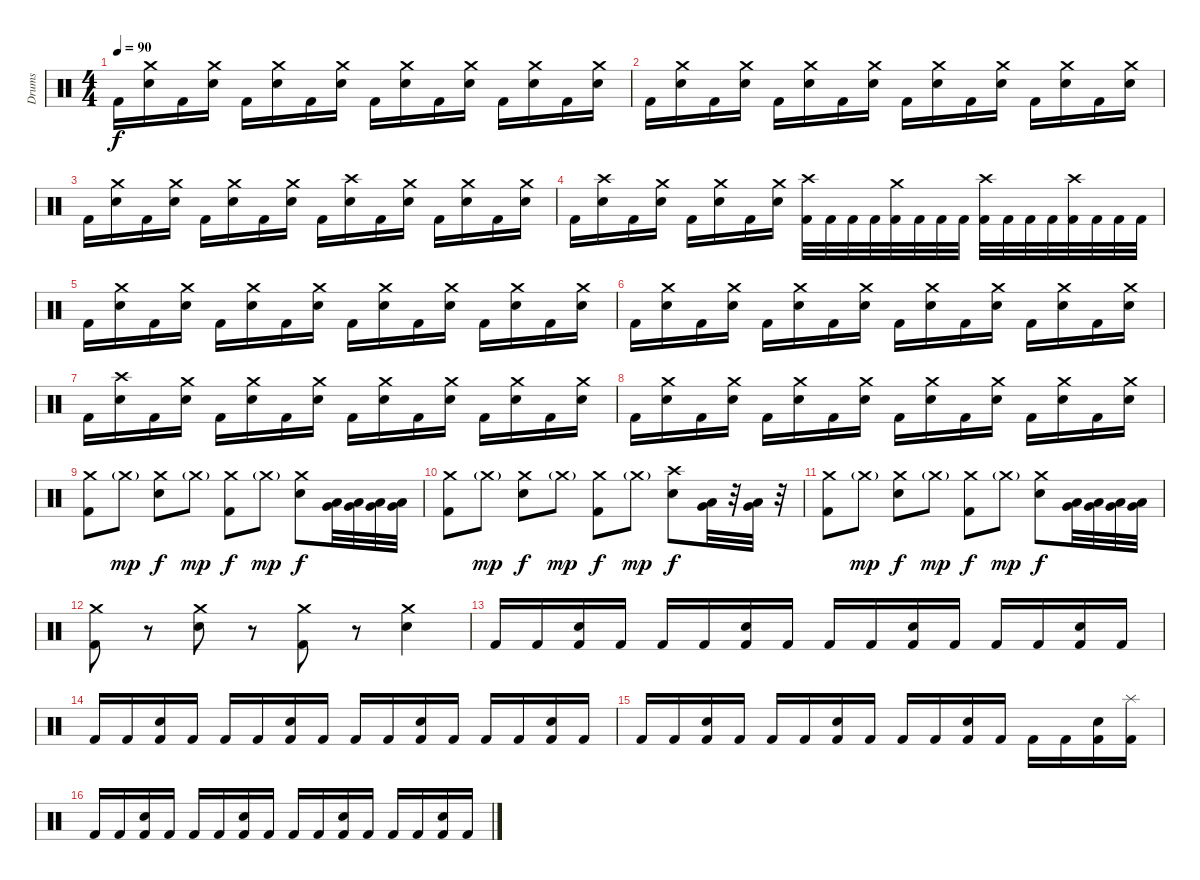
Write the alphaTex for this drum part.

\track ("Drums" "Drums") {instrument percussion}
\staff {score}
\articulation defaults
\ts (4 4)
\tempo 90
\clef neutral
\ks c "Kick (hit) 2".16{dy f}
("Crash medium (hit)" "Snare (hit) 2").16 "Kick (hit) 2".16 ("Crash medium (hit)" "Snare (hit) 2").16 "Kick (hit) 2".16 ("Crash medium (hit)" "Snare (hit) 2").16 "Kick (hit) 2".16 ("Crash medium (hit)" "Snare (hit) 2").16 "Kick (hit) 2".16 ("Crash medium (hit)" "Snare (hit) 2").16 "Kick (hit) 2".16 ("Crash medium (hit)" "Snare (hit) 2").16 "Kick (hit) 2".16 ("Crash medium (hit)" "Snare (hit) 2").16 "Kick (hit) 2".16 ("Crash medium (hit)" "Snare (hit) 2").16 |
"Kick (hit) 2".16 ("Crash medium (hit)" "Snare (hit) 2").16 "Kick (hit) 2".16 ("Crash medium (hit)" "Snare (hit) 2").16 "Kick (hit) 2".16 ("Crash medium (hit)" "Snare (hit) 2").16 "Kick (hit) 2".16 ("Crash medium (hit)" "Snare (hit) 2").16 "Kick (hit) 2".16 ("Crash medium (hit)" "Snare (hit) 2").16 "Kick (hit) 2".16 ("Crash medium (hit)" "Snare (hit) 2").16 "Kick (hit) 2".16 ("Crash medium (hit)" "Snare (hit) 2").16 "Kick (hit) 2".16 ("Crash medium (hit)" "Snare (hit) 2").16 |
"Kick (hit) 2".16 ("Crash medium (hit)" "Snare (hit) 2").16 "Kick (hit) 2".16 ("Crash medium (hit)" "Snare (hit) 2").16 "Kick (hit) 2".16 ("Crash medium (hit)" "Snare (hit) 2").16 "Kick (hit) 2".16 ("Crash medium (hit)" "Snare (hit) 2").16 "Kick (hit) 2".16 ("Crash high (hit)" "Snare (hit) 2").16 "Kick (hit) 2".16 ("Crash medium (hit)" "Snare (hit) 2").16 "Kick (hit) 2".16 ("Crash medium (hit)" "Snare (hit) 2").16 "Kick (hit) 2".16 ("Crash medium (hit)" "Snare (hit) 2").16 |
"Kick (hit) 2".16 ("Crash high (hit)" "Snare (hit) 2").16 "Kick (hit) 2".16 ("Crash medium (hit)" "Snare (hit) 2").16 "Kick (hit) 2".16 ("Crash medium (hit)" "Snare (hit) 2").16 "Kick (hit) 2".16 ("Crash medium (hit)" "Snare (hit) 2").16 ("Crash high (hit)" "Kick (hit) 2").32 "Kick (hit) 2".32 "Kick (hit) 2".32 "Kick (hit) 2".32 ("Crash medium (hit)" "Kick (hit) 2").32 "Kick (hit) 2".32 "Kick (hit) 2".32 "Kick (hit) 2".32 ("Crash high (hit)" "Kick (hit) 2").32 "Kick (hit) 2".32 "Kick (hit) 2".32 "Kick (hit) 2".32 ("Crash high (hit)" "Kick (hit) 2").32 "Kick (hit) 2".32 "Kick (hit) 2".32 "Kick (hit) 2".32 |
"Kick (hit) 2".16 ("Crash medium (hit)" "Snare (hit) 2").16 "Kick (hit) 2".16 ("Crash medium (hit)" "Snare (hit) 2").16 "Kick (hit) 2".16 ("Crash medium (hit)" "Snare (hit) 2").16 "Kick (hit) 2".16 ("Crash medium (hit)" "Snare (hit) 2").16 "Kick (hit) 2".16 ("Crash medium (hit)" "Snare (hit) 2").16 "Kick (hit) 2".16 ("Crash medium (hit)" "Snare (hit) 2").16 "Kick (hit) 2".16 ("Crash medium (hit)" "Snare (hit) 2").16 "Kick (hit) 2".16 ("Crash medium (hit)" "Snare (hit) 2").16 |
"Kick (hit) 2".16 ("Crash medium (hit)" "Snare (hit) 2").16 "Kick (hit) 2".16 ("Crash medium (hit)" "Snare (hit) 2").16 "Kick (hit) 2".16 ("Crash medium (hit)" "Snare (hit) 2").16 "Kick (hit) 2".16 ("Crash medium (hit)" "Snare (hit) 2").16 "Kick (hit) 2".16 ("Crash medium (hit)" "Snare (hit) 2").16 "Kick (hit) 2".16 ("Crash medium (hit)" "Snare (hit) 2").16 "Kick (hit) 2".16 ("Crash medium (hit)" "Snare (hit) 2").16 "Kick (hit) 2".16 ("Crash medium (hit)" "Snare (hit) 2").16 |
"Kick (hit) 2".16 ("Crash high (hit)" "Snare (hit) 2").16 "Kick (hit) 2".16 ("Crash medium (hit)" "Snare (hit) 2").16 "Kick (hit) 2".16 ("Crash medium (hit)" "Snare (hit) 2").16 "Kick (hit) 2".16 ("Crash medium (hit)" "Snare (hit) 2").16 "Kick (hit) 2".16 ("Crash medium (hit)" "Snare (hit) 2").16 "Kick (hit) 2".16 ("Crash medium (hit)" "Snare (hit) 2").16 "Kick (hit) 2".16 ("Crash medium (hit)" "Snare (hit) 2").16 "Kick (hit) 2".16 ("Crash medium (hit)" "Snare (hit) 2").16 |
"Kick (hit) 2".16 ("Crash medium (hit)" "Snare (hit) 2").16 "Kick (hit) 2".16 ("Crash medium (hit)" "Snare (hit) 2").16 "Kick (hit) 2".16 ("Crash medium (hit)" "Snare (hit) 2").16 "Kick (hit) 2".16 ("Crash medium (hit)" "Snare (hit) 2").16 "Kick (hit) 2".16 ("Crash medium (hit)" "Snare (hit) 2").16 "Kick (hit) 2".16 ("Crash medium (hit)" "Snare (hit) 2").16 "Kick (hit) 2".16 ("Crash medium (hit)" "Snare (hit) 2").16 "Kick (hit) 2".16 ("Crash medium (hit)" "Snare (hit) 2").16 |
("Crash medium (hit)" "Kick (hit) 2").8 "Crash medium (hit)"{g}.8{dy mp} ("Crash medium (hit)" "Snare (hit) 2").8{dy f} "Crash medium (hit)"{g}.8{dy mp} ("Crash medium (hit)" "Kick (hit) 2").8{dy f} "Crash medium (hit)"{g}.8{dy mp} ("Crash medium (hit)" "Snare (hit) 2").8{dy f} ("Very Low Tom (hit)" "Low Floor Tom (hit)").32 ("Very Low Tom (hit)" "Low Floor Tom (hit)").32 ("Very Low Tom (hit)" "Low Floor Tom (hit)").32 ("Very Low Tom (hit)" "Low Floor Tom (hit)").32 |
("Crash medium (hit)" "Kick (hit) 2").8 "Crash medium (hit)"{g}.8{dy mp} ("Crash medium (hit)" "Snare (hit) 2").8{dy f} "Crash medium (hit)"{g}.8{dy mp} ("Crash medium (hit)" "Kick (hit) 2").8{dy f} "Crash medium (hit)"{g}.8{dy mp} ("Crash high (hit)" "Snare (hit) 2").8{dy f} ("Very Low Tom (hit)" "Low Floor Tom (hit)").32 r.32 ("Very Low Tom (hit)" "Low Floor Tom (hit)").32 r.32 |
("Crash medium (hit)" "Kick (hit) 2").8 "Crash medium (hit)"{g}.8{dy mp} ("Crash medium (hit)" "Snare (hit) 2").8{dy f} "Crash medium (hit)"{g}.8{dy mp} ("Crash medium (hit)" "Kick (hit) 2").8{dy f} "Crash medium (hit)"{g}.8{dy mp} ("Crash medium (hit)" "Snare (hit) 2").8{dy f} ("Very Low Tom (hit)" "Low Floor Tom (hit)").32 ("Very Low Tom (hit)" "Low Floor Tom (hit)").32 ("Very Low Tom (hit)" "Low Floor Tom (hit)").32 ("Very Low Tom (hit)" "Low Floor Tom (hit)").32 |
("Crash medium (hit)" "Kick (hit) 2").8 r.8 ("Crash medium (hit)" "Snare (hit) 2").8 r.8 ("Crash medium (hit)" "Kick (hit) 2").8 r.8 ("Crash medium (hit)" "Snare (hit) 2").4 |
"Kick (hit) 2".16 "Kick (hit) 2".16 ("Snare (hit) 2" "Kick (hit) 2").16 "Kick (hit) 2".16 "Kick (hit) 2".16 "Kick (hit) 2".16 ("Snare (hit) 2" "Kick (hit) 2").16 "Kick (hit) 2".16 "Kick (hit) 2".16 "Kick (hit) 2".16 ("Snare (hit) 2" "Kick (hit) 2").16 "Kick (hit) 2".16 "Kick (hit) 2".16 "Kick (hit) 2".16 ("Snare (hit) 2" "Kick (hit) 2").16 "Kick (hit) 2".16 |
"Kick (hit) 2".16 "Kick (hit) 2".16 ("Snare (hit) 2" "Kick (hit) 2").16 "Kick (hit) 2".16 "Kick (hit) 2".16 "Kick (hit) 2".16 ("Snare (hit) 2" "Kick (hit) 2").16 "Kick (hit) 2".16 "Kick (hit) 2".16 "Kick (hit) 2".16 ("Snare (hit) 2" "Kick (hit) 2").16 "Kick (hit) 2".16 "Kick (hit) 2".16 "Kick (hit) 2".16 ("Snare (hit) 2" "Kick (hit) 2").16 "Kick (hit) 2".16 |
"Kick (hit) 2".16 "Kick (hit) 2".16 ("Snare (hit) 2" "Kick (hit) 2").16 "Kick (hit) 2".16 "Kick (hit) 2".16 "Kick (hit) 2".16 ("Snare (hit) 2" "Kick (hit) 2").16 "Kick (hit) 2".16 "Kick (hit) 2".16 "Kick (hit) 2".16 ("Snare (hit) 2" "Kick (hit) 2").16 "Kick (hit) 2".16 "Kick (hit) 2".16 "Kick (hit) 2".16 ("Snare (hit) 2" "Kick (hit) 2").16 ("Splash (hit)" "Kick (hit) 2").16 |
"Kick (hit) 2".16 "Kick (hit) 2".16 ("Snare (hit) 2" "Kick (hit) 2").16 "Kick (hit) 2".16 "Kick (hit) 2".16 "Kick (hit) 2".16 ("Snare (hit) 2" "Kick (hit) 2").16 "Kick (hit) 2".16 "Kick (hit) 2".16 "Kick (hit) 2".16 ("Snare (hit) 2" "Kick (hit) 2").16 "Kick (hit) 2".16 "Kick (hit) 2".16 "Kick (hit) 2".16 ("Snare (hit) 2" "Kick (hit) 2").16 "Kick (hit) 2".16
